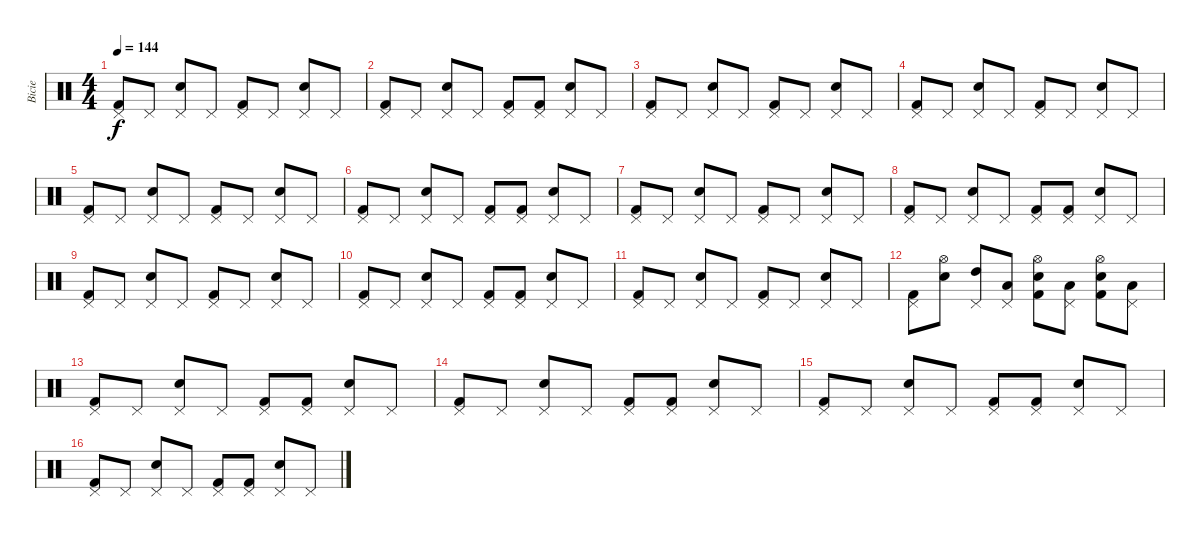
\track ("Bicie" "Bicie") {instrument percussion}
\staff {score}
\articulation defaults
\ts (4 4)
\tempo 144
\clef neutral
\ks c
("Pedal Hi-Hat (hit)" "Kick (hit) 2").8{dy f} "Pedal Hi-Hat (hit)".8 ("Pedal Hi-Hat (hit)" "Snare (hit) 2").8 "Pedal Hi-Hat (hit)".8 ("Pedal Hi-Hat (hit)" "Kick (hit) 2").8 "Pedal Hi-Hat (hit)".8 ("Pedal Hi-Hat (hit)" "Snare (hit) 2").8 "Pedal Hi-Hat (hit)".8 |
("Pedal Hi-Hat (hit)" "Kick (hit) 2").8 "Pedal Hi-Hat (hit)".8 ("Pedal Hi-Hat (hit)" "Snare (hit) 2").8 "Pedal Hi-Hat (hit)".8 ("Pedal Hi-Hat (hit)" "Kick (hit) 2").8 ("Pedal Hi-Hat (hit)" "Kick (hit) 2").8 ("Pedal Hi-Hat (hit)" "Snare (hit) 2").8 "Pedal Hi-Hat (hit)".8 |
("Pedal Hi-Hat (hit)" "Kick (hit) 2").8 "Pedal Hi-Hat (hit)".8 ("Pedal Hi-Hat (hit)" "Snare (hit) 2").8 "Pedal Hi-Hat (hit)".8 ("Pedal Hi-Hat (hit)" "Kick (hit) 2").8 "Pedal Hi-Hat (hit)".8 ("Pedal Hi-Hat (hit)" "Snare (hit) 2").8 "Pedal Hi-Hat (hit)".8 |
("Pedal Hi-Hat (hit)" "Kick (hit) 2").8 "Pedal Hi-Hat (hit)".8 ("Pedal Hi-Hat (hit)" "Snare (hit) 2").8 "Pedal Hi-Hat (hit)".8 ("Pedal Hi-Hat (hit)" "Kick (hit) 2").8 "Pedal Hi-Hat (hit)".8 ("Pedal Hi-Hat (hit)" "Snare (hit) 2").8 "Pedal Hi-Hat (hit)".8 |
("Pedal Hi-Hat (hit)" "Kick (hit) 2").8 "Pedal Hi-Hat (hit)".8 ("Pedal Hi-Hat (hit)" "Snare (hit) 2").8 "Pedal Hi-Hat (hit)".8 ("Pedal Hi-Hat (hit)" "Kick (hit) 2").8 "Pedal Hi-Hat (hit)".8 ("Pedal Hi-Hat (hit)" "Snare (hit) 2").8 "Pedal Hi-Hat (hit)".8 |
("Pedal Hi-Hat (hit)" "Kick (hit) 2").8 "Pedal Hi-Hat (hit)".8 ("Pedal Hi-Hat (hit)" "Snare (hit) 2").8 "Pedal Hi-Hat (hit)".8 ("Pedal Hi-Hat (hit)" "Kick (hit) 2").8 ("Pedal Hi-Hat (hit)" "Kick (hit) 2").8 ("Pedal Hi-Hat (hit)" "Snare (hit) 2").8 "Pedal Hi-Hat (hit)".8 |
("Pedal Hi-Hat (hit)" "Kick (hit) 2").8 "Pedal Hi-Hat (hit)".8 ("Pedal Hi-Hat (hit)" "Snare (hit) 2").8 "Pedal Hi-Hat (hit)".8 ("Pedal Hi-Hat (hit)" "Kick (hit) 2").8 "Pedal Hi-Hat (hit)".8 ("Pedal Hi-Hat (hit)" "Snare (hit) 2").8 "Pedal Hi-Hat (hit)".8 |
("Pedal Hi-Hat (hit)" "Kick (hit) 2").8 "Pedal Hi-Hat (hit)".8 ("Pedal Hi-Hat (hit)" "Snare (hit) 2").8 "Pedal Hi-Hat (hit)".8 ("Pedal Hi-Hat (hit)" "Kick (hit) 2").8 ("Pedal Hi-Hat (hit)" "Kick (hit) 2").8 ("Pedal Hi-Hat (hit)" "Snare (hit) 2").8 "Pedal Hi-Hat (hit)".8 |
("Pedal Hi-Hat (hit)" "Kick (hit) 2").8 "Pedal Hi-Hat (hit)".8 ("Pedal Hi-Hat (hit)" "Snare (hit) 2").8 "Pedal Hi-Hat (hit)".8 ("Pedal Hi-Hat (hit)" "Kick (hit) 2").8 "Pedal Hi-Hat (hit)".8 ("Pedal Hi-Hat (hit)" "Snare (hit) 2").8 "Pedal Hi-Hat (hit)".8 |
("Pedal Hi-Hat (hit)" "Kick (hit) 2").8 "Pedal Hi-Hat (hit)".8 ("Pedal Hi-Hat (hit)" "Snare (hit) 2").8 "Pedal Hi-Hat (hit)".8 ("Pedal Hi-Hat (hit)" "Kick (hit) 2").8 ("Pedal Hi-Hat (hit)" "Kick (hit) 2").8 ("Pedal Hi-Hat (hit)" "Snare (hit) 2").8 "Pedal Hi-Hat (hit)".8 |
("Pedal Hi-Hat (hit)" "Kick (hit) 2").8 "Pedal Hi-Hat (hit)".8 ("Pedal Hi-Hat (hit)" "Snare (hit) 2").8 "Pedal Hi-Hat (hit)".8 ("Pedal Hi-Hat (hit)" "Kick (hit) 2").8 "Pedal Hi-Hat (hit)".8 ("Pedal Hi-Hat (hit)" "Snare (hit) 2").8 "Pedal Hi-Hat (hit)".8 |
("Pedal Hi-Hat (hit)" "Kick (hit) 2").8 ("Hi-Hat (open)" "Snare (hit) 2").8 ("Pedal Hi-Hat (hit)" "High Tom (hit)").8 ("Pedal Hi-Hat (hit)" "Low Tom (hit)").8 ("Hi-Hat (open)" "Snare (hit) 2" "Kick (hit) 2").8 ("Pedal Hi-Hat (hit)" "Low Tom (hit)").8 ("Hi-Hat (open)" "Snare (hit) 2" "Kick (hit) 2").8 ("Pedal Hi-Hat (hit)" "Low Tom (hit)").8 |
("Pedal Hi-Hat (hit)" "Kick (hit) 2").8 "Pedal Hi-Hat (hit)".8 ("Pedal Hi-Hat (hit)" "Snare (hit) 2").8 "Pedal Hi-Hat (hit)".8 ("Pedal Hi-Hat (hit)" "Kick (hit) 2").8 ("Pedal Hi-Hat (hit)" "Kick (hit) 2").8 ("Pedal Hi-Hat (hit)" "Snare (hit) 2").8 "Pedal Hi-Hat (hit)".8 |
("Pedal Hi-Hat (hit)" "Kick (hit) 2").8 "Pedal Hi-Hat (hit)".8 ("Pedal Hi-Hat (hit)" "Snare (hit) 2").8 "Pedal Hi-Hat (hit)".8 ("Pedal Hi-Hat (hit)" "Kick (hit) 2").8 ("Pedal Hi-Hat (hit)" "Kick (hit) 2").8 ("Pedal Hi-Hat (hit)" "Snare (hit) 2").8 "Pedal Hi-Hat (hit)".8 |
("Pedal Hi-Hat (hit)" "Kick (hit) 2").8 "Pedal Hi-Hat (hit)".8 ("Pedal Hi-Hat (hit)" "Snare (hit) 2").8 "Pedal Hi-Hat (hit)".8 ("Pedal Hi-Hat (hit)" "Kick (hit) 2").8 ("Pedal Hi-Hat (hit)" "Kick (hit) 2").8 ("Pedal Hi-Hat (hit)" "Snare (hit) 2").8 "Pedal Hi-Hat (hit)".8 |
("Pedal Hi-Hat (hit)" "Kick (hit) 2").8 "Pedal Hi-Hat (hit)".8 ("Pedal Hi-Hat (hit)" "Snare (hit) 2").8 "Pedal Hi-Hat (hit)".8 ("Pedal Hi-Hat (hit)" "Kick (hit) 2").8 ("Pedal Hi-Hat (hit)" "Kick (hit) 2").8 ("Pedal Hi-Hat (hit)" "Snare (hit) 2").8 "Pedal Hi-Hat (hit)".8
